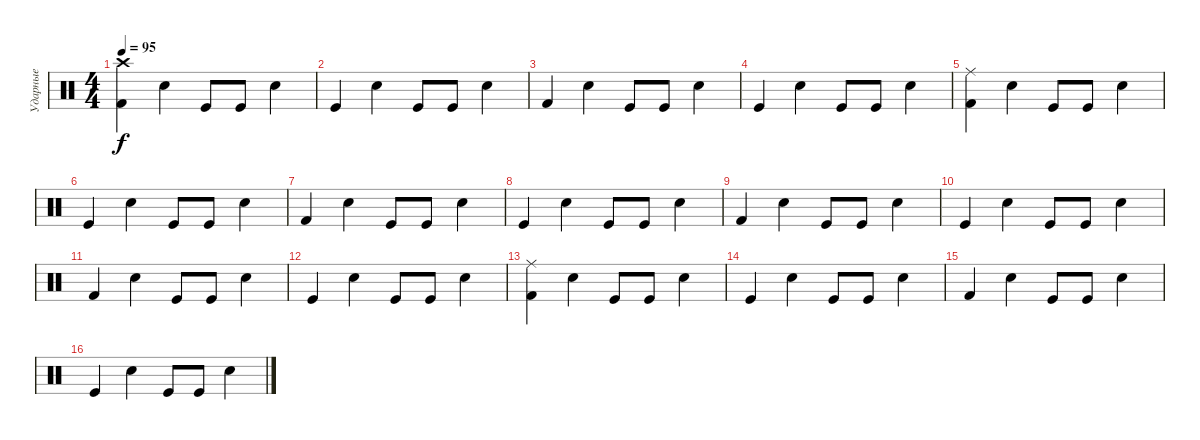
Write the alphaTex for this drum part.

\track ("Ударные" "Ударные") {instrument percussion}
\staff {score}
\articulation defaults
\ts (4 4)
\tempo 95
\clef neutral
\ks c
("Crash high (hit)" "Kick (hit) 2").4{dy f} "Electric Snare (hit)".4 "Kick (hit)".8 "Kick (hit)".8 "Electric Snare (hit)".4 |
"Kick (hit)".4 "Electric Snare (hit)".4 "Kick (hit)".8 "Kick (hit)".8 "Electric Snare (hit)".4 |
"Kick (hit) 2".4 "Electric Snare (hit)".4 "Kick (hit)".8 "Kick (hit)".8 "Electric Snare (hit)".4 |
"Kick (hit)".4 "Electric Snare (hit)".4 "Kick (hit)".8 "Kick (hit)".8 "Electric Snare (hit)".4 |
("Ride (middle)" "Kick (hit) 2").4 "Electric Snare (hit)".4 "Kick (hit)".8 "Kick (hit)".8 "Electric Snare (hit)".4 |
"Kick (hit)".4 "Electric Snare (hit)".4 "Kick (hit)".8 "Kick (hit)".8 "Electric Snare (hit)".4 |
"Kick (hit) 2".4 "Electric Snare (hit)".4 "Kick (hit)".8 "Kick (hit)".8 "Electric Snare (hit)".4 |
"Kick (hit)".4 "Electric Snare (hit)".4 "Kick (hit)".8 "Kick (hit)".8 "Electric Snare (hit)".4 |
"Kick (hit) 2".4 "Electric Snare (hit)".4 "Kick (hit)".8 "Kick (hit)".8 "Electric Snare (hit)".4 |
"Kick (hit)".4 "Electric Snare (hit)".4 "Kick (hit)".8 "Kick (hit)".8 "Electric Snare (hit)".4 |
"Kick (hit) 2".4 "Electric Snare (hit)".4 "Kick (hit)".8 "Kick (hit)".8 "Electric Snare (hit)".4 |
"Kick (hit)".4 "Electric Snare (hit)".4 "Kick (hit)".8 "Kick (hit)".8 "Electric Snare (hit)".4 |
("Ride (middle)" "Kick (hit) 2").4 "Electric Snare (hit)".4 "Kick (hit)".8 "Kick (hit)".8 "Electric Snare (hit)".4 |
"Kick (hit)".4 "Electric Snare (hit)".4 "Kick (hit)".8 "Kick (hit)".8 "Electric Snare (hit)".4 |
"Kick (hit) 2".4 "Electric Snare (hit)".4 "Kick (hit)".8 "Kick (hit)".8 "Electric Snare (hit)".4 |
"Kick (hit)".4 "Electric Snare (hit)".4 "Kick (hit)".8 "Kick (hit)".8 "Electric Snare (hit)".4
